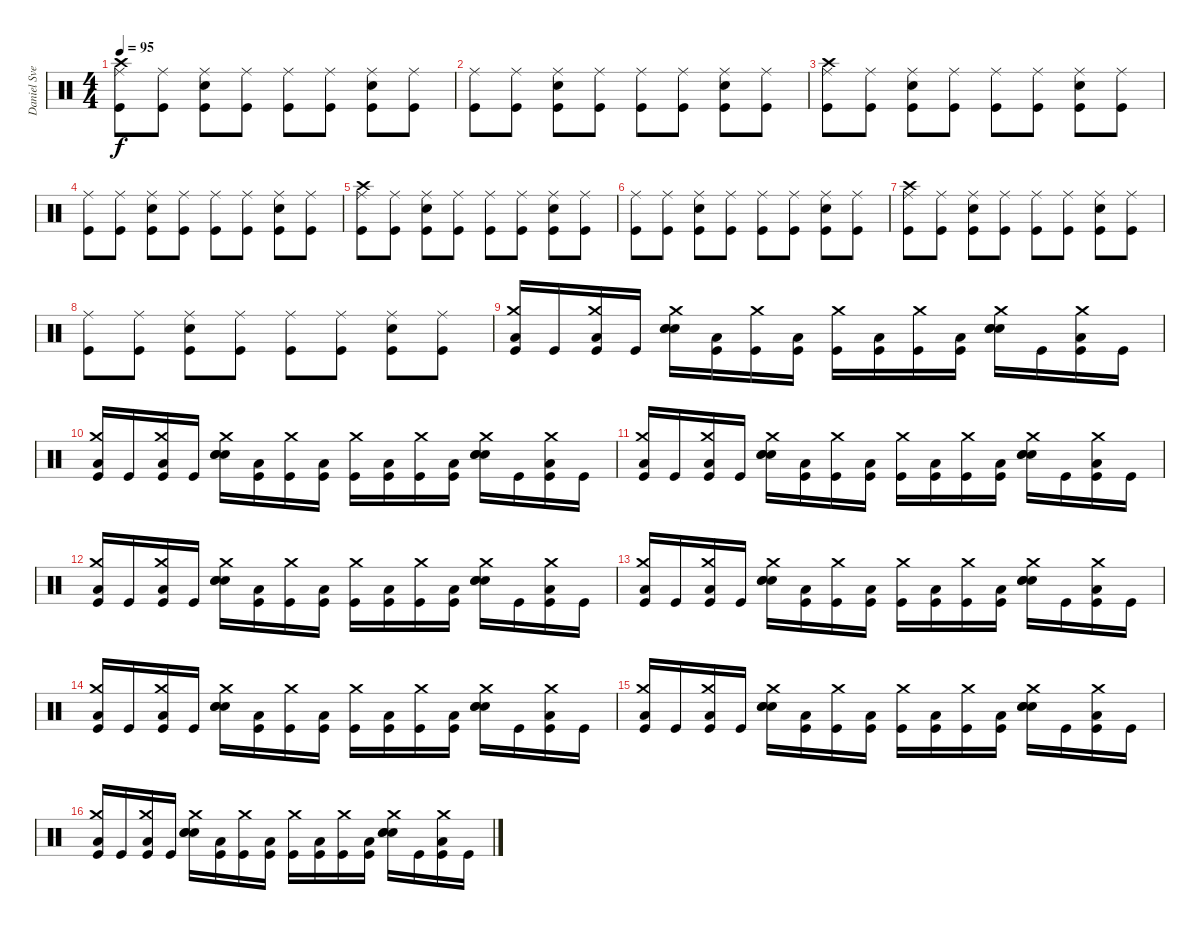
\track ("Daniel Svensson" "Daniel Sve") {instrument percussion}
\staff {score}
\articulation defaults
\ts (4 4)
\tempo 95
\clef neutral
\ks c
("Ride (middle)" "Crash high (hit)" "Kick (hit)").8{dy f} ("Ride (middle)" "Kick (hit)").8 ("Ride (middle)" "Electric Snare (hit)" "Kick (hit)").8 ("Ride (middle)" "Kick (hit)").8 ("Ride (middle)" "Kick (hit)").8 ("Ride (middle)" "Kick (hit)").8 ("Ride (middle)" "Electric Snare (hit)" "Kick (hit)").8 ("Ride (middle)" "Kick (hit)").8 |
("Ride (middle)" "Kick (hit)").8 ("Ride (middle)" "Kick (hit)").8 ("Ride (middle)" "Electric Snare (hit)" "Kick (hit)").8 ("Ride (middle)" "Kick (hit)").8 ("Ride (middle)" "Kick (hit)").8 ("Ride (middle)" "Kick (hit)").8 ("Ride (middle)" "Electric Snare (hit)" "Kick (hit)").8 ("Ride (middle)" "Kick (hit)").8 |
("Ride (middle)" "Crash high (hit)" "Kick (hit)").8 ("Ride (middle)" "Kick (hit)").8 ("Ride (middle)" "Electric Snare (hit)" "Kick (hit)").8 ("Ride (middle)" "Kick (hit)").8 ("Ride (middle)" "Kick (hit)").8 ("Ride (middle)" "Kick (hit)").8 ("Ride (middle)" "Electric Snare (hit)" "Kick (hit)").8 ("Ride (middle)" "Kick (hit)").8 |
("Ride (middle)" "Kick (hit)").8 ("Ride (middle)" "Kick (hit)").8 ("Ride (middle)" "Electric Snare (hit)" "Kick (hit)").8 ("Ride (middle)" "Kick (hit)").8 ("Ride (middle)" "Kick (hit)").8 ("Ride (middle)" "Kick (hit)").8 ("Ride (middle)" "Electric Snare (hit)" "Kick (hit)").8 ("Ride (middle)" "Kick (hit)").8 |
("Ride (middle)" "Crash high (hit)" "Kick (hit)").8 ("Ride (middle)" "Kick (hit)").8 ("Ride (middle)" "Electric Snare (hit)" "Kick (hit)").8 ("Ride (middle)" "Kick (hit)").8 ("Ride (middle)" "Kick (hit)").8 ("Ride (middle)" "Kick (hit)").8 ("Ride (middle)" "Electric Snare (hit)" "Kick (hit)").8 ("Ride (middle)" "Kick (hit)").8 |
("Ride (middle)" "Kick (hit)").8 ("Ride (middle)" "Kick (hit)").8 ("Ride (middle)" "Electric Snare (hit)" "Kick (hit)").8 ("Ride (middle)" "Kick (hit)").8 ("Ride (middle)" "Kick (hit)").8 ("Ride (middle)" "Kick (hit)").8 ("Ride (middle)" "Electric Snare (hit)" "Kick (hit)").8 ("Ride (middle)" "Kick (hit)").8 |
("Ride (middle)" "Crash high (hit)" "Kick (hit)").8 ("Ride (middle)" "Kick (hit)").8 ("Ride (middle)" "Electric Snare (hit)" "Kick (hit)").8 ("Ride (middle)" "Kick (hit)").8 ("Ride (middle)" "Kick (hit)").8 ("Ride (middle)" "Kick (hit)").8 ("Ride (middle)" "Electric Snare (hit)" "Kick (hit)").8 ("Ride (middle)" "Kick (hit)").8 |
("Ride (middle)" "Kick (hit)").8 ("Ride (middle)" "Kick (hit)").8 ("Ride (middle)" "Electric Snare (hit)" "Kick (hit)").8 ("Ride (middle)" "Kick (hit)").8 ("Ride (middle)" "Kick (hit)").8 ("Ride (middle)" "Kick (hit)").8 ("Ride (middle)" "Electric Snare (hit)" "Kick (hit)").8 ("Ride (middle)" "Kick (hit)").8 |
("Crash medium (hit)" "Low Floor Tom (hit)" "Kick (hit)").16 "Kick (hit)".16 ("Crash medium (hit)" "Low Floor Tom (hit)" "Kick (hit)").16 "Kick (hit)".16 ("Crash medium (hit)" "Snare (hit) 2" "Snare (hit) 2" "Snare (hit) 2").16 ("Low Floor Tom (hit)" "Kick (hit)").16 ("Crash medium (hit)" "Kick (hit)").16 ("Low Floor Tom (hit)" "Kick (hit)").16 ("Crash medium (hit)" "Kick (hit)").16 ("Low Floor Tom (hit)" "Kick (hit)").16 ("Crash medium (hit)" "Kick (hit)").16 ("Low Floor Tom (hit)" "Kick (hit)").16 ("Crash medium (hit)" "Snare (hit) 2" "Snare (hit) 2" "Snare (hit) 2").16 "Kick (hit)".16 ("Crash medium (hit)" "Low Floor Tom (hit)" "Kick (hit)").16 "Kick (hit)".16 |
("Crash medium (hit)" "Low Floor Tom (hit)" "Kick (hit)").16 "Kick (hit)".16 ("Crash medium (hit)" "Low Floor Tom (hit)" "Kick (hit)").16 "Kick (hit)".16 ("Crash medium (hit)" "Snare (hit) 2" "Snare (hit) 2" "Snare (hit) 2").16 ("Low Floor Tom (hit)" "Kick (hit)").16 ("Crash medium (hit)" "Kick (hit)").16 ("Low Floor Tom (hit)" "Kick (hit)").16 ("Crash medium (hit)" "Kick (hit)").16 ("Low Floor Tom (hit)" "Kick (hit)").16 ("Crash medium (hit)" "Kick (hit)").16 ("Low Floor Tom (hit)" "Kick (hit)").16 ("Crash medium (hit)" "Snare (hit) 2" "Snare (hit) 2" "Snare (hit) 2").16 "Kick (hit)".16 ("Crash medium (hit)" "Low Floor Tom (hit)" "Kick (hit)").16 "Kick (hit)".16 |
("Crash medium (hit)" "Low Floor Tom (hit)" "Kick (hit)").16 "Kick (hit)".16 ("Crash medium (hit)" "Low Floor Tom (hit)" "Kick (hit)").16 "Kick (hit)".16 ("Crash medium (hit)" "Snare (hit) 2" "Snare (hit) 2" "Snare (hit) 2").16 ("Low Floor Tom (hit)" "Kick (hit)").16 ("Crash medium (hit)" "Kick (hit)").16 ("Low Floor Tom (hit)" "Kick (hit)").16 ("Crash medium (hit)" "Kick (hit)").16 ("Low Floor Tom (hit)" "Kick (hit)").16 ("Crash medium (hit)" "Kick (hit)").16 ("Low Floor Tom (hit)" "Kick (hit)").16 ("Crash medium (hit)" "Snare (hit) 2" "Snare (hit) 2" "Snare (hit) 2").16 "Kick (hit)".16 ("Crash medium (hit)" "Low Floor Tom (hit)" "Kick (hit)").16 "Kick (hit)".16 |
("Crash medium (hit)" "Low Floor Tom (hit)" "Kick (hit)").16 "Kick (hit)".16 ("Crash medium (hit)" "Low Floor Tom (hit)" "Kick (hit)").16 "Kick (hit)".16 ("Crash medium (hit)" "Snare (hit) 2" "Snare (hit) 2" "Snare (hit) 2").16 ("Low Floor Tom (hit)" "Kick (hit)").16 ("Crash medium (hit)" "Kick (hit)").16 ("Low Floor Tom (hit)" "Kick (hit)").16 ("Crash medium (hit)" "Kick (hit)").16 ("Low Floor Tom (hit)" "Kick (hit)").16 ("Crash medium (hit)" "Kick (hit)").16 ("Low Floor Tom (hit)" "Kick (hit)").16 ("Crash medium (hit)" "Snare (hit) 2" "Snare (hit) 2" "Snare (hit) 2").16 "Kick (hit)".16 ("Crash medium (hit)" "Low Floor Tom (hit)" "Kick (hit)").16 "Kick (hit)".16 |
("Crash medium (hit)" "Low Floor Tom (hit)" "Kick (hit)").16 "Kick (hit)".16 ("Crash medium (hit)" "Low Floor Tom (hit)" "Kick (hit)").16 "Kick (hit)".16 ("Crash medium (hit)" "Snare (hit) 2" "Snare (hit) 2" "Snare (hit) 2").16 ("Low Floor Tom (hit)" "Kick (hit)").16 ("Crash medium (hit)" "Kick (hit)").16 ("Low Floor Tom (hit)" "Kick (hit)").16 ("Crash medium (hit)" "Kick (hit)").16 ("Low Floor Tom (hit)" "Kick (hit)").16 ("Crash medium (hit)" "Kick (hit)").16 ("Low Floor Tom (hit)" "Kick (hit)").16 ("Crash medium (hit)" "Snare (hit) 2" "Snare (hit) 2" "Snare (hit) 2").16 "Kick (hit)".16 ("Crash medium (hit)" "Low Floor Tom (hit)" "Kick (hit)").16 "Kick (hit)".16 |
("Crash medium (hit)" "Low Floor Tom (hit)" "Kick (hit)").16 "Kick (hit)".16 ("Crash medium (hit)" "Low Floor Tom (hit)" "Kick (hit)").16 "Kick (hit)".16 ("Crash medium (hit)" "Snare (hit) 2" "Snare (hit) 2" "Snare (hit) 2").16 ("Low Floor Tom (hit)" "Kick (hit)").16 ("Crash medium (hit)" "Kick (hit)").16 ("Low Floor Tom (hit)" "Kick (hit)").16 ("Crash medium (hit)" "Kick (hit)").16 ("Low Floor Tom (hit)" "Kick (hit)").16 ("Crash medium (hit)" "Kick (hit)").16 ("Low Floor Tom (hit)" "Kick (hit)").16 ("Crash medium (hit)" "Snare (hit) 2" "Snare (hit) 2" "Snare (hit) 2").16 "Kick (hit)".16 ("Crash medium (hit)" "Low Floor Tom (hit)" "Kick (hit)").16 "Kick (hit)".16 |
("Crash medium (hit)" "Low Floor Tom (hit)" "Kick (hit)").16 "Kick (hit)".16 ("Crash medium (hit)" "Low Floor Tom (hit)" "Kick (hit)").16 "Kick (hit)".16 ("Crash medium (hit)" "Snare (hit) 2" "Snare (hit) 2" "Snare (hit) 2").16 ("Low Floor Tom (hit)" "Kick (hit)").16 ("Crash medium (hit)" "Kick (hit)").16 ("Low Floor Tom (hit)" "Kick (hit)").16 ("Crash medium (hit)" "Kick (hit)").16 ("Low Floor Tom (hit)" "Kick (hit)").16 ("Crash medium (hit)" "Kick (hit)").16 ("Low Floor Tom (hit)" "Kick (hit)").16 ("Crash medium (hit)" "Snare (hit) 2" "Snare (hit) 2" "Snare (hit) 2").16 "Kick (hit)".16 ("Crash medium (hit)" "Low Floor Tom (hit)" "Kick (hit)").16 "Kick (hit)".16 |
("Crash medium (hit)" "Low Floor Tom (hit)" "Kick (hit)").16 "Kick (hit)".16 ("Crash medium (hit)" "Low Floor Tom (hit)" "Kick (hit)").16 "Kick (hit)".16 ("Crash medium (hit)" "Snare (hit) 2" "Snare (hit) 2" "Snare (hit) 2").16 ("Low Floor Tom (hit)" "Kick (hit)").16 ("Crash medium (hit)" "Kick (hit)").16 ("Low Floor Tom (hit)" "Kick (hit)").16 ("Crash medium (hit)" "Kick (hit)").16 ("Low Floor Tom (hit)" "Kick (hit)").16 ("Crash medium (hit)" "Kick (hit)").16 ("Low Floor Tom (hit)" "Kick (hit)").16 ("Crash medium (hit)" "Snare (hit) 2" "Snare (hit) 2" "Snare (hit) 2").16 "Kick (hit)".16 ("Crash medium (hit)" "Low Floor Tom (hit)" "Kick (hit)").16 "Kick (hit)".16
